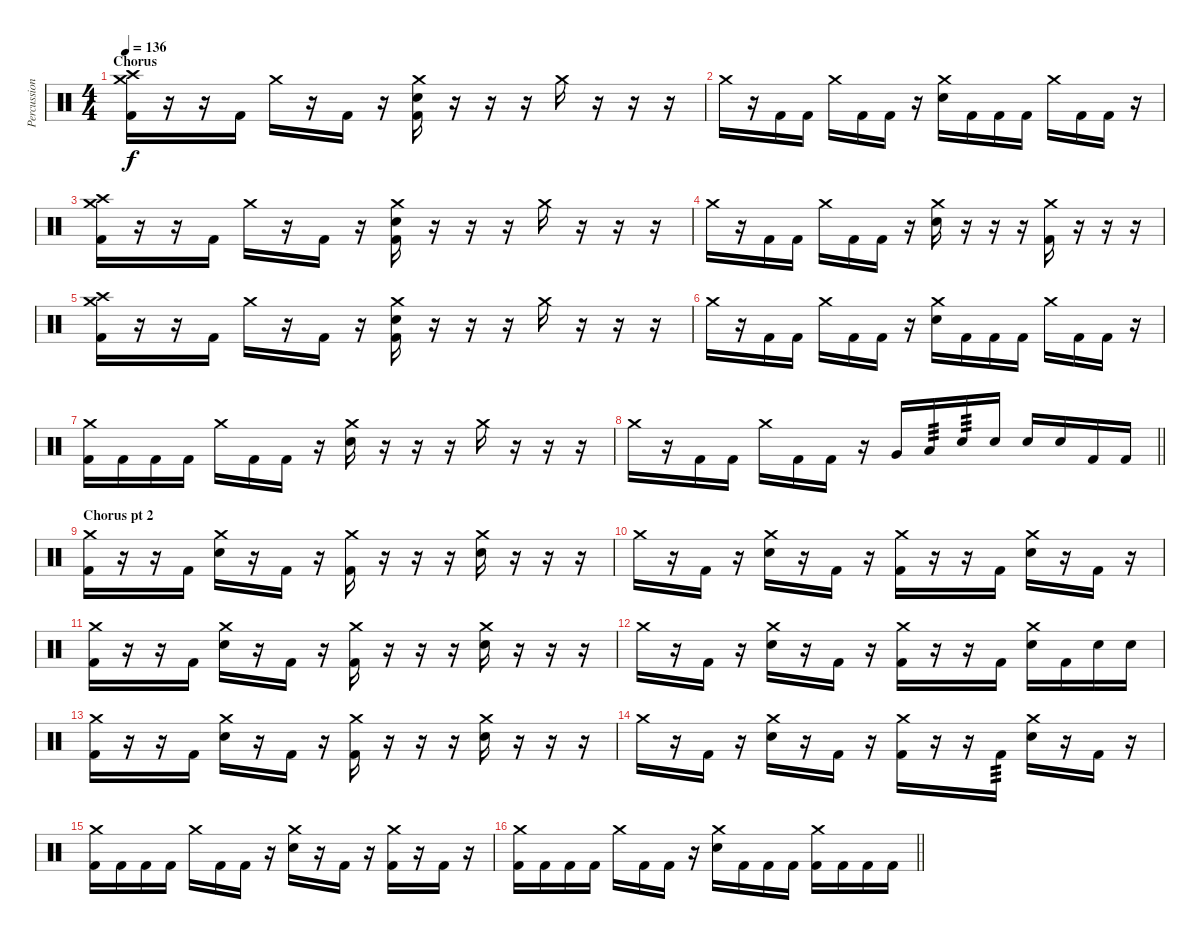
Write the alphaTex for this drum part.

\track ("Percussion" "Percussion") {instrument percussion}
\staff {score}
\articulation defaults
\ts (4 4)
\section ("" "Chorus")
\tempo 136
\clef neutral
\ks c
("Crash high (hit)" "Crash medium (hit)" "Kick (hit) 2").16{dy f} r.16 r.16 "Kick (hit) 2".16 "Crash medium (hit)".16 r.16 "Kick (hit) 2".16 r.16 ("Crash medium (hit)" "Electric Snare (hit)" "Kick (hit) 2").16 r.16 r.16 r.16 "Crash medium (hit)".16 r.16 r.16 r.16 |
"Crash medium (hit)".16 r.16 "Kick (hit) 2".16 "Kick (hit) 2".16 "Crash medium (hit)".16 "Kick (hit) 2".16 "Kick (hit) 2".16 r.16 ("Crash medium (hit)" "Electric Snare (hit)").16 "Kick (hit) 2".16 "Kick (hit) 2".16 "Kick (hit) 2".16 "Crash medium (hit)".16 "Kick (hit) 2".16 "Kick (hit) 2".16 r.16 |
("Crash high (hit)" "Crash medium (hit)" "Kick (hit) 2").16 r.16 r.16 "Kick (hit) 2".16 "Crash medium (hit)".16 r.16 "Kick (hit) 2".16 r.16 ("Crash medium (hit)" "Electric Snare (hit)" "Kick (hit) 2").16 r.16 r.16 r.16 "Crash medium (hit)".16 r.16 r.16 r.16 |
"Crash medium (hit)".16 r.16 "Kick (hit) 2".16 "Kick (hit) 2".16 "Crash medium (hit)".16 "Kick (hit) 2".16 "Kick (hit) 2".16 r.16 ("Crash medium (hit)" "Electric Snare (hit)").16 r.16 r.16 r.16 ("Crash medium (hit)" "Kick (hit) 2").16 r.16 r.16 r.16 |
("Crash high (hit)" "Crash medium (hit)" "Kick (hit) 2").16 r.16 r.16 "Kick (hit) 2".16 "Crash medium (hit)".16 r.16 "Kick (hit) 2".16 r.16 ("Crash medium (hit)" "Electric Snare (hit)" "Kick (hit) 2").16 r.16 r.16 r.16 "Crash medium (hit)".16 r.16 r.16 r.16 |
"Crash medium (hit)".16 r.16 "Kick (hit) 2".16 "Kick (hit) 2".16 "Crash medium (hit)".16 "Kick (hit) 2".16 "Kick (hit) 2".16 r.16 ("Crash medium (hit)" "Electric Snare (hit)").16 "Kick (hit) 2".16 "Kick (hit) 2".16 "Kick (hit) 2".16 "Crash medium (hit)".16 "Kick (hit) 2".16 "Kick (hit) 2".16 r.16 |
("Crash medium (hit)" "Kick (hit) 2").16 "Kick (hit) 2".16 "Kick (hit) 2".16 "Kick (hit) 2".16 "Crash medium (hit)".16 "Kick (hit) 2".16 "Kick (hit) 2".16 r.16 ("Crash medium (hit)" "Electric Snare (hit)").16 r.16 r.16 r.16 "Crash medium (hit)".16 r.16 r.16 r.16 |
\barLineRight lightlight "Crash medium (hit)".16
r.16 "Kick (hit) 2".16 "Kick (hit) 2".16 "Crash medium (hit)".16 "Kick (hit) 2".16 "Kick (hit) 2".16 r.16 "Very Low Tom (hit)".16 "Low Tom (hit)".16{tp 3} "Electric Snare (hit)".16{tp 3} "Electric Snare (hit)".16 "Electric Snare (hit)".16 "Electric Snare (hit)".16 "Kick (hit) 2".16 "Kick (hit) 2".16 |
\section ("" "Chorus pt 2")
("Crash medium (hit)" "Kick (hit) 2").16 r.16 r.16 "Kick (hit) 2".16 ("Crash medium (hit)" "Electric Snare (hit)").16 r.16 "Kick (hit) 2".16 r.16 ("Crash medium (hit)" "Kick (hit) 2").16 r.16 r.16 r.16 ("Crash medium (hit)" "Electric Snare (hit)").16 r.16 r.16 r.16 |
"Crash medium (hit)".16 r.16 "Kick (hit) 2".16 r.16 ("Crash medium (hit)" "Electric Snare (hit)").16 r.16 "Kick (hit) 2".16 r.16 ("Crash medium (hit)" "Kick (hit) 2").16 r.16 r.16 "Kick (hit) 2".16 ("Crash medium (hit)" "Electric Snare (hit)").16 r.16 "Kick (hit) 2".16 r.16 |
("Crash medium (hit)" "Kick (hit) 2").16 r.16 r.16 "Kick (hit) 2".16 ("Crash medium (hit)" "Electric Snare (hit)").16 r.16 "Kick (hit) 2".16 r.16 ("Crash medium (hit)" "Kick (hit) 2").16 r.16 r.16 r.16 ("Crash medium (hit)" "Electric Snare (hit)").16 r.16 r.16 r.16 |
"Crash medium (hit)".16 r.16 "Kick (hit) 2".16 r.16 ("Crash medium (hit)" "Electric Snare (hit)").16 r.16 "Kick (hit) 2".16 r.16 ("Crash medium (hit)" "Kick (hit) 2").16 r.16 r.16 "Kick (hit) 2".16 ("Crash medium (hit)" "Electric Snare (hit)").16 "Kick (hit) 2".16 "Electric Snare (hit)".16 "Electric Snare (hit)".16 |
("Crash medium (hit)" "Kick (hit) 2").16 r.16 r.16 "Kick (hit) 2".16 ("Crash medium (hit)" "Electric Snare (hit)").16 r.16 "Kick (hit) 2".16 r.16 ("Crash medium (hit)" "Kick (hit) 2").16 r.16 r.16 r.16 ("Crash medium (hit)" "Electric Snare (hit)").16 r.16 r.16 r.16 |
"Crash medium (hit)".16 r.16 "Kick (hit) 2".16 r.16 ("Crash medium (hit)" "Electric Snare (hit)").16 r.16 "Kick (hit) 2".16 r.16 ("Crash medium (hit)" "Kick (hit) 2").16 r.16 r.16 "Kick (hit) 2".16{tp 3} ("Crash medium (hit)" "Electric Snare (hit)").16 r.16 "Kick (hit) 2".16 r.16 |
("Crash medium (hit)" "Kick (hit) 2").16 "Kick (hit) 2".16 "Kick (hit) 2".16 "Kick (hit) 2".16 "Crash medium (hit)".16 "Kick (hit) 2".16 "Kick (hit) 2".16 r.16 ("Crash medium (hit)" "Electric Snare (hit)").16 r.16 "Kick (hit) 2".16 r.16 ("Crash medium (hit)" "Kick (hit) 2").16 r.16 "Kick (hit) 2".16 r.16 |
\barLineRight lightlight
("Crash medium (hit)" "Kick (hit) 2").16 "Kick (hit) 2".16 "Kick (hit) 2".16 "Kick (hit) 2".16 "Crash medium (hit)".16 "Kick (hit) 2".16 "Kick (hit) 2".16 r.16 ("Crash medium (hit)" "Electric Snare (hit)").16 "Kick (hit) 2".16 "Kick (hit) 2".16 "Kick (hit) 2".16 ("Crash medium (hit)" "Kick (hit) 2").16 "Kick (hit) 2".16 "Kick (hit) 2".16 "Kick (hit) 2".16
